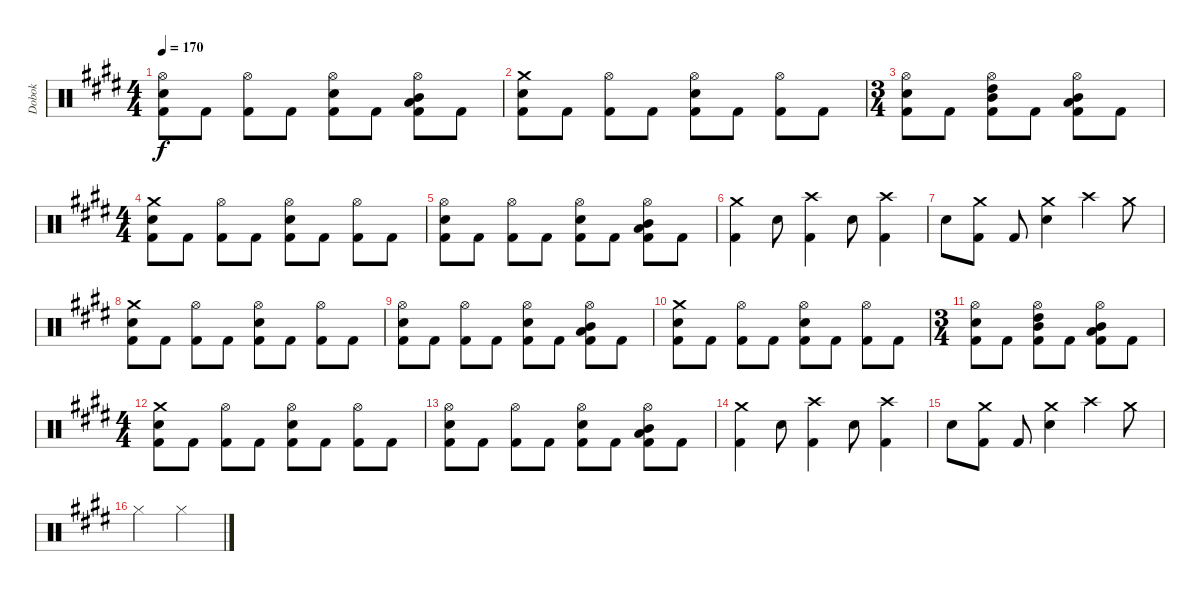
\track ("Dobok" "Dobok") {instrument percussion}
\staff {score}
\articulation defaults
\ts (4 4)
\tempo 170
\clef neutral
\ks c#minor
("Hi-Hat (open)" "Snare (hit) 2" "Kick (hit) 2").8{dy f} "Kick (hit) 2".8 ("Hi-Hat (open)" "Kick (hit) 2").8 "Kick (hit) 2".8 ("Hi-Hat (open)" "Snare (hit) 2" "Kick (hit) 2").8 "Kick (hit) 2".8 ("Hi-Hat (open)" "Low Tom (hit)" "Mid Tom (hit)" "Kick (hit) 2").8 "Kick (hit) 2".8 |
("Crash medium (hit)" "Snare (hit) 2" "Kick (hit) 2").8 "Kick (hit) 2".8 ("Hi-Hat (open)" "Kick (hit) 2").8 "Kick (hit) 2".8 ("Hi-Hat (open)" "Snare (hit) 2" "Kick (hit) 2").8 "Kick (hit) 2".8 ("Hi-Hat (open)" "Kick (hit) 2").8 "Kick (hit) 2".8 |
\ts (3 4)
("Hi-Hat (open)" "Snare (hit) 2" "Kick (hit) 2").8 "Kick (hit) 2".8 ("Hi-Hat (open)" "High Tom (hit)" "Mid Tom (hit)" "Kick (hit) 2").8 "Kick (hit) 2".8 ("Hi-Hat (open)" "Mid Tom (hit)" "Low Tom (hit)" "Kick (hit) 2").8 "Kick (hit) 2".8 |
\ts (4 4)
("Crash medium (hit)" "Snare (hit) 2" "Kick (hit) 2").8 "Kick (hit) 2".8 ("Hi-Hat (open)" "Kick (hit) 2").8 "Kick (hit) 2".8 ("Hi-Hat (open)" "Snare (hit) 2" "Kick (hit) 2").8 "Kick (hit) 2".8 ("Hi-Hat (open)" "Kick (hit) 2").8 "Kick (hit) 2".8 |
("Hi-Hat (open)" "Snare (hit) 2" "Kick (hit) 2").8 "Kick (hit) 2".8 ("Hi-Hat (open)" "Kick (hit) 2").8 "Kick (hit) 2".8 ("Hi-Hat (open)" "Snare (hit) 2" "Kick (hit) 2").8 "Kick (hit) 2".8 ("Hi-Hat (open)" "Low Tom (hit)" "Mid Tom (hit)" "Kick (hit) 2").8 "Kick (hit) 2".8 |
("Crash medium (hit)" "Kick (hit) 2").4 "Snare (hit) 2".8 ("Crash high (hit)" "Kick (hit) 2").4 "Snare (hit) 2".8 ("Crash high (hit)" "Kick (hit) 2").4 |
"Snare (hit) 2".8 ("Crash medium (hit)" "Kick (hit) 2").8 "Kick (hit) 2".8 ("Crash medium (hit)" "Snare (hit) 2").4 "Crash high (hit)".4 "Crash medium (hit)".8 |
("Crash medium (hit)" "Snare (hit) 2" "Kick (hit) 2").8 "Kick (hit) 2".8 ("Hi-Hat (open)" "Kick (hit) 2").8 "Kick (hit) 2".8 ("Hi-Hat (open)" "Snare (hit) 2" "Kick (hit) 2").8 "Kick (hit) 2".8 ("Hi-Hat (open)" "Kick (hit) 2").8 "Kick (hit) 2".8 |
("Hi-Hat (open)" "Snare (hit) 2" "Kick (hit) 2").8 "Kick (hit) 2".8 ("Hi-Hat (open)" "Kick (hit) 2").8 "Kick (hit) 2".8 ("Hi-Hat (open)" "Snare (hit) 2" "Kick (hit) 2").8 "Kick (hit) 2".8 ("Hi-Hat (open)" "Low Tom (hit)" "Mid Tom (hit)" "Kick (hit) 2").8 "Kick (hit) 2".8 |
("Crash medium (hit)" "Snare (hit) 2" "Kick (hit) 2").8 "Kick (hit) 2".8 ("Hi-Hat (open)" "Kick (hit) 2").8 "Kick (hit) 2".8 ("Hi-Hat (open)" "Snare (hit) 2" "Kick (hit) 2").8 "Kick (hit) 2".8 ("Hi-Hat (open)" "Kick (hit) 2").8 "Kick (hit) 2".8 |
\ts (3 4)
("Hi-Hat (open)" "Snare (hit) 2" "Kick (hit) 2").8 "Kick (hit) 2".8 ("Hi-Hat (open)" "High Tom (hit)" "Mid Tom (hit)" "Kick (hit) 2").8 "Kick (hit) 2".8 ("Hi-Hat (open)" "Mid Tom (hit)" "Low Tom (hit)" "Kick (hit) 2").8 "Kick (hit) 2".8 |
\ts (4 4)
("Crash medium (hit)" "Snare (hit) 2" "Kick (hit) 2").8 "Kick (hit) 2".8 ("Hi-Hat (open)" "Kick (hit) 2").8 "Kick (hit) 2".8 ("Hi-Hat (open)" "Snare (hit) 2" "Kick (hit) 2").8 "Kick (hit) 2".8 ("Hi-Hat (open)" "Kick (hit) 2").8 "Kick (hit) 2".8 |
("Hi-Hat (open)" "Snare (hit) 2" "Kick (hit) 2").8 "Kick (hit) 2".8 ("Hi-Hat (open)" "Kick (hit) 2").8 "Kick (hit) 2".8 ("Hi-Hat (open)" "Snare (hit) 2" "Kick (hit) 2").8 "Kick (hit) 2".8 ("Hi-Hat (open)" "Low Tom (hit)" "Mid Tom (hit)" "Kick (hit) 2").8 "Kick (hit) 2".8 |
("Crash medium (hit)" "Kick (hit) 2").4 "Snare (hit) 2".8 ("Crash high (hit)" "Kick (hit) 2").4 "Snare (hit) 2".8 ("Crash high (hit)" "Kick (hit) 2").4 |
"Snare (hit) 2".8 ("Crash medium (hit)" "Kick (hit) 2").8 "Kick (hit) 2".8 ("Crash medium (hit)" "Snare (hit) 2").4 "Crash high (hit)".4 "Crash medium (hit)".8 |
"Hi-Hat (closed)".2 "Hi-Hat (closed)".2
